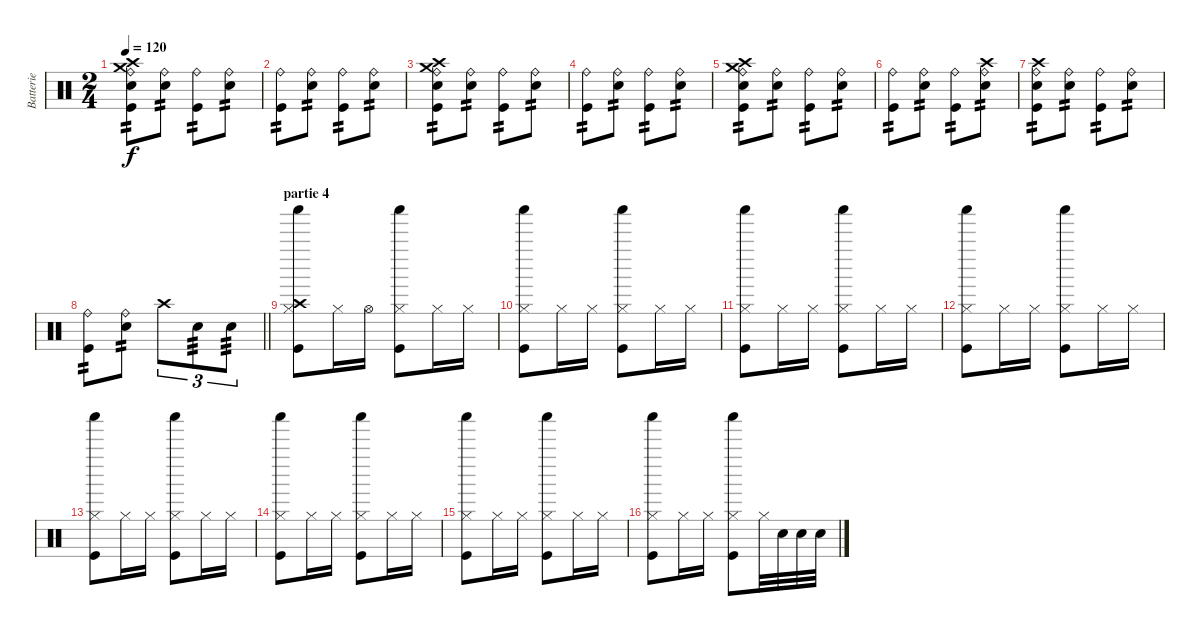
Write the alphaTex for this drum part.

\track ("Batterie" "Batterie") {instrument percussion}
\staff {score}
\articulation defaults
\ts (2 4)
\tempo 120
\clef neutral
\ks c
("Crash medium (hit)" "Ride (bell)" "Crash high (hit)" "Electric Snare (hit)" "Kick (hit)").8{tp 2 dy f} ("Ride (bell)" "Electric Snare (hit)").8{tp 2} ("Ride (bell)" "Kick (hit)").8{tp 2} ("Ride (bell)" "Electric Snare (hit)").8{tp 2} |
("Ride (bell)" "Kick (hit)").8{tp 2} ("Ride (bell)" "Electric Snare (hit)").8{tp 2} ("Ride (bell)" "Kick (hit)").8{tp 2} ("Ride (bell)" "Electric Snare (hit)").8{tp 2} |
("Crash medium (hit)" "Ride (bell)" "Crash high (hit)" "Electric Snare (hit)" "Kick (hit)").8{tp 2} ("Ride (bell)" "Electric Snare (hit)").8{tp 2} ("Ride (bell)" "Kick (hit)").8{tp 2} ("Ride (bell)" "Electric Snare (hit)").8{tp 2} |
("Ride (bell)" "Kick (hit)").8{tp 2} ("Ride (bell)" "Electric Snare (hit)").8{tp 2} ("Ride (bell)" "Kick (hit)").8{tp 2} ("Ride (bell)" "Electric Snare (hit)").8{tp 2} |
("Crash medium (hit)" "Ride (bell)" "Crash high (hit)" "Electric Snare (hit)" "Kick (hit)").8{tp 2} ("Ride (bell)" "Electric Snare (hit)").8{tp 2} ("Ride (bell)" "Kick (hit)").8{tp 2} ("Ride (bell)" "Electric Snare (hit)").8{tp 2} |
("Ride (bell)" "Kick (hit)").8{tp 2} ("Ride (bell)" "Electric Snare (hit)").8{tp 2} ("Ride (bell)" "Kick (hit)").8{tp 2} ("Crash high (hit)" "Ride (bell)" "Electric Snare (hit)").8{tp 2} |
("Ride (bell)" "Crash high (hit)" "Electric Snare (hit)" "Kick (hit)").8{tp 2} ("Ride (bell)" "Electric Snare (hit)").8{tp 2} ("Ride (bell)" "Kick (hit)").8{tp 2} ("Ride (bell)" "Electric Snare (hit)").8{tp 2} |
\barLineRight lightlight
("Ride (bell)" "Kick (hit)").8{tp 2} ("Ride (bell)" "Electric Snare (hit)").8{tp 2} "Crash high (hit)".8{tu (3 2)} "Electric Snare (hit)".8{tu (3 2) tp 3} "Electric Snare (hit)".8{tu (3 2) tp 3} |
\section ("" "partie 4")
("Shaker (hit)" "Hi-Hat (closed)" "Crash high (hit)" "Kick (hit)").8 "Hi-Hat (closed)".16 "Hi-Hat (open)".16 ("Shaker (hit)" "Hi-Hat (closed)" "Kick (hit)").8 "Hi-Hat (closed)".16 "Hi-Hat (closed)".16 |
("Shaker (hit)" "Hi-Hat (closed)" "Kick (hit)").8 "Hi-Hat (closed)".16 "Hi-Hat (closed)".16 ("Shaker (hit)" "Hi-Hat (closed)" "Kick (hit)").8 "Hi-Hat (closed)".16 "Hi-Hat (closed)".16 |
("Shaker (hit)" "Hi-Hat (closed)" "Kick (hit)").8 "Hi-Hat (closed)".16 "Hi-Hat (closed)".16 ("Shaker (hit)" "Hi-Hat (closed)" "Kick (hit)").8 "Hi-Hat (closed)".16 "Hi-Hat (closed)".16 |
("Shaker (hit)" "Hi-Hat (closed)" "Kick (hit)").8 "Hi-Hat (closed)".16 "Hi-Hat (closed)".16 ("Shaker (hit)" "Hi-Hat (closed)" "Kick (hit)").8 "Hi-Hat (closed)".16 "Hi-Hat (closed)".16 |
("Shaker (hit)" "Hi-Hat (closed)" "Kick (hit)").8 "Hi-Hat (closed)".16 "Hi-Hat (closed)".16 ("Shaker (hit)" "Hi-Hat (closed)" "Kick (hit)").8 "Hi-Hat (closed)".16 "Hi-Hat (closed)".16 |
("Shaker (hit)" "Hi-Hat (closed)" "Kick (hit)").8 "Hi-Hat (closed)".16 "Hi-Hat (closed)".16 ("Shaker (hit)" "Hi-Hat (closed)" "Kick (hit)").8 "Hi-Hat (closed)".16 "Hi-Hat (closed)".16 |
("Shaker (hit)" "Hi-Hat (closed)" "Kick (hit)").8 "Hi-Hat (closed)".16 "Hi-Hat (closed)".16 ("Shaker (hit)" "Hi-Hat (closed)" "Kick (hit)").8 "Hi-Hat (closed)".16 "Hi-Hat (closed)".16 |
("Shaker (hit)" "Hi-Hat (closed)" "Kick (hit)").8 "Hi-Hat (closed)".16 "Hi-Hat (closed)".16 ("Shaker (hit)" "Hi-Hat (closed)" "Kick (hit)").8 "Hi-Hat (closed)".32 "Snare (hit) 2".32 "Snare (hit) 2".32 "Snare (hit) 2".32
